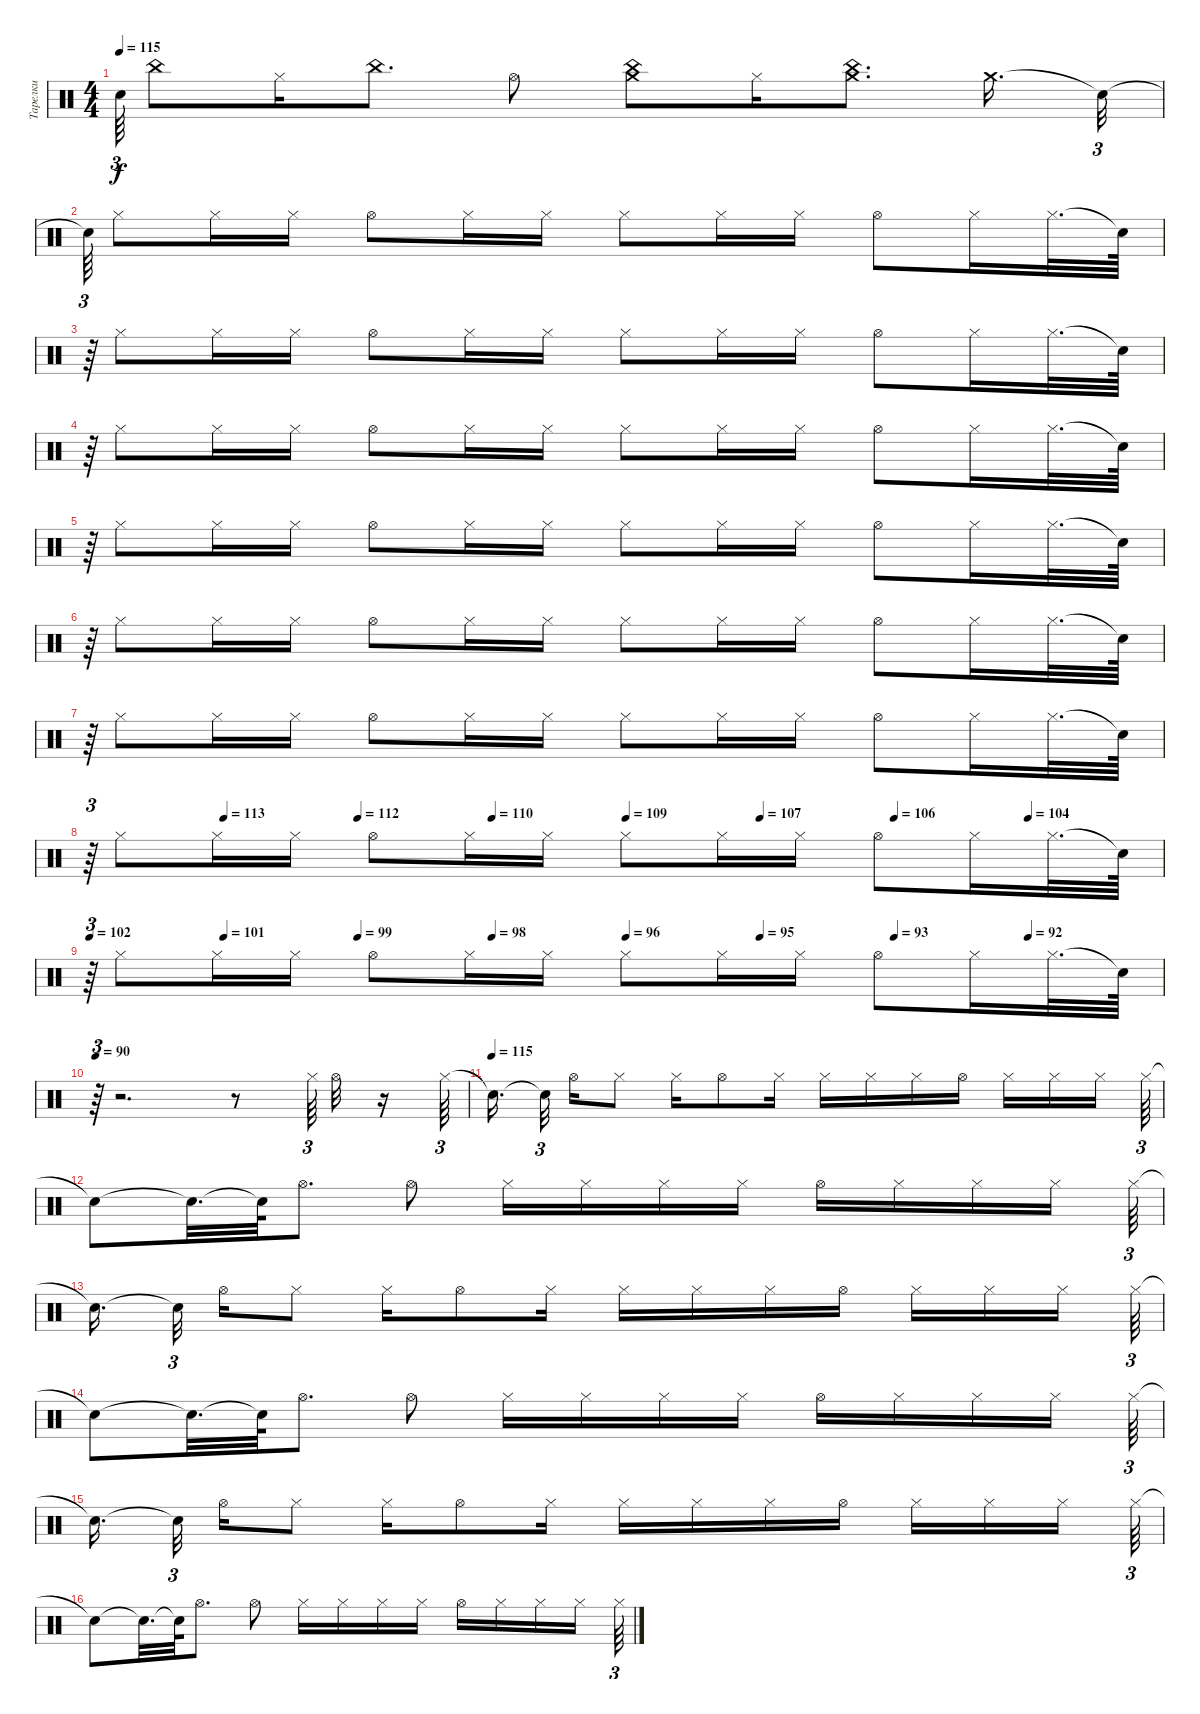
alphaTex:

\track ("Тарелки" "Тарелки") {instrument percussion}
\staff {score}
\articulation defaults
\ts (4 4)
\tempo 115
\clef neutral
\ks c "Snare (hit)"{t}.64{tu (3 2) dy f} "China (hit)".8 "Hi-Hat (closed)".16 "China (hit)".8{d} "Hi-Hat (open)".8
("China (hit)" "Crash medium (hit)").8 "Hi-Hat (closed)".16 ("China (hit)" "Crash medium (hit)").8{d} "Crash medium (hit)".16{d} "Snare (hit)"{t}.32{tu (3 2)} |
"Snare (hit)"{t}.64{tu (3 2)} "Hi-Hat (closed)".8 "Hi-Hat (closed)".16 "Hi-Hat (closed)".16 "Hi-Hat (open)".8 "Hi-Hat (closed)".16 "Hi-Hat (closed)".16 "Hi-Hat (closed)".8 "Hi-Hat (closed)".16 "Hi-Hat (closed)".16 "Hi-Hat (open)".8 "Hi-Hat (closed)".16 "Hi-Hat (closed)".32{d} "Snare (hit)"{t}.64 |
r.64{tu (3 2)} "Hi-Hat (closed)".8 "Hi-Hat (closed)".16 "Hi-Hat (closed)".16 "Hi-Hat (open)".8 "Hi-Hat (closed)".16 "Hi-Hat (closed)".16 "Hi-Hat (closed)".8 "Hi-Hat (closed)".16 "Hi-Hat (closed)".16 "Hi-Hat (open)".8 "Hi-Hat (closed)".16 "Hi-Hat (closed)".32{d} "Snare (hit)"{t}.64 |
r.64{tu (3 2)} "Hi-Hat (closed)".8 "Hi-Hat (closed)".16 "Hi-Hat (closed)".16 "Hi-Hat (open)".8 "Hi-Hat (closed)".16 "Hi-Hat (closed)".16 "Hi-Hat (closed)".8 "Hi-Hat (closed)".16 "Hi-Hat (closed)".16 "Hi-Hat (open)".8 "Hi-Hat (closed)".16 "Hi-Hat (closed)".32{d} "Snare (hit)"{t}.64 |
r.64{tu (3 2)} "Hi-Hat (closed)".8 "Hi-Hat (closed)".16 "Hi-Hat (closed)".16 "Hi-Hat (open)".8 "Hi-Hat (closed)".16 "Hi-Hat (closed)".16 "Hi-Hat (closed)".8 "Hi-Hat (closed)".16 "Hi-Hat (closed)".16 "Hi-Hat (open)".8 "Hi-Hat (closed)".16 "Hi-Hat (closed)".32{d} "Snare (hit)"{t}.64 |
r.64{tu (3 2)} "Hi-Hat (closed)".8 "Hi-Hat (closed)".16 "Hi-Hat (closed)".16 "Hi-Hat (open)".8 "Hi-Hat (closed)".16 "Hi-Hat (closed)".16 "Hi-Hat (closed)".8 "Hi-Hat (closed)".16 "Hi-Hat (closed)".16 "Hi-Hat (open)".8 "Hi-Hat (closed)".16 "Hi-Hat (closed)".32{d} "Snare (hit)"{t}.64 |
r.64{tu (3 2)} "Hi-Hat (closed)".8 "Hi-Hat (closed)".16 "Hi-Hat (closed)".16 "Hi-Hat (open)".8 "Hi-Hat (closed)".16 "Hi-Hat (closed)".16 "Hi-Hat (closed)".8 "Hi-Hat (closed)".16 "Hi-Hat (closed)".16 "Hi-Hat (open)".8 "Hi-Hat (closed)".16 "Hi-Hat (closed)".32{d} "Snare (hit)"{t}.64 |
\tempo (113 0.125)
\tempo (112 0.25)
\tempo (110 0.375)
\tempo (109 0.5)
\tempo (107 0.625)
\tempo (106 0.75)
\tempo (104 0.875)
r.64{tu (3 2)} "Hi-Hat (closed)".8 "Hi-Hat (closed)".16 "Hi-Hat (closed)".16 "Hi-Hat (open)".8 "Hi-Hat (closed)".16 "Hi-Hat (closed)".16 "Hi-Hat (closed)".8 "Hi-Hat (closed)".16 "Hi-Hat (closed)".16 "Hi-Hat (open)".8 "Hi-Hat (closed)".16 "Hi-Hat (closed)".32{d} "Snare (hit)"{t}.64 |
\tempo 102
\tempo (101 0.125)
\tempo (99 0.25)
\tempo (98 0.375)
\tempo (96 0.5)
\tempo (95 0.625)
\tempo (93 0.75)
\tempo (92 0.875)
r.64{tu (3 2)} "Hi-Hat (closed)".8 "Hi-Hat (closed)".16 "Hi-Hat (closed)".16 "Hi-Hat (open)".8 "Hi-Hat (closed)".16 "Hi-Hat (closed)".16 "Hi-Hat (closed)".8 "Hi-Hat (closed)".16 "Hi-Hat (closed)".16 "Hi-Hat (open)".8 "Hi-Hat (closed)".16 "Hi-Hat (closed)".32{d} "Snare (hit)"{t}.64 |
\tempo 90
r.64{tu (3 2)} r.2{d} r.8 "Hi-Hat (closed)".64{tu (3 2)} "Hi-Hat (open)".32 r.16 "Hi-Hat (closed)".64{tu (3 2)} |
\tempo (115)
"Snare (hit)"{t}.16{d beam splitsecondary} "Snare (hit)"{t}.32{tu (3 2) beam splitsecondary} "Hi-Hat (open)".16 "Hi-Hat (closed)".8 "Hi-Hat (closed)".16 "Hi-Hat (open)".8 "Hi-Hat (closed)".16 "Hi-Hat (closed)".16 "Hi-Hat (closed)".16 "Hi-Hat (closed)".16 "Hi-Hat (open)".16 "Hi-Hat (closed)".16 "Hi-Hat (closed)".16 "Hi-Hat (closed)".16{beam splitsecondary} "Hi-Hat (closed)".64{tu (3 2)} |
"Snare (hit)"{t}.8 "Snare (hit)"{t}.32{d} "Snare (hit)"{t}.64 "Hi-Hat (open)".8{d} "Hi-Hat (open)".8 "Hi-Hat (closed)".16 "Hi-Hat (closed)".16 "Hi-Hat (closed)".16 "Hi-Hat (closed)".16 "Hi-Hat (open)".16 "Hi-Hat (closed)".16 "Hi-Hat (closed)".16 "Hi-Hat (closed)".16 "Hi-Hat (closed)".64{tu (3 2)} |
"Snare (hit)"{t}.16{d beam splitsecondary} "Snare (hit)"{t}.32{tu (3 2) beam splitsecondary} "Hi-Hat (open)".16 "Hi-Hat (closed)".8 "Hi-Hat (closed)".16 "Hi-Hat (open)".8 "Hi-Hat (closed)".16 "Hi-Hat (closed)".16 "Hi-Hat (closed)".16 "Hi-Hat (closed)".16 "Hi-Hat (open)".16 "Hi-Hat (closed)".16 "Hi-Hat (closed)".16 "Hi-Hat (closed)".16{beam splitsecondary} "Hi-Hat (closed)".64{tu (3 2)} |
"Snare (hit)"{t}.8 "Snare (hit)"{t}.32{d} "Snare (hit)"{t}.64 "Hi-Hat (open)".8{d} "Hi-Hat (open)".8 "Hi-Hat (closed)".16 "Hi-Hat (closed)".16 "Hi-Hat (closed)".16 "Hi-Hat (closed)".16 "Hi-Hat (open)".16 "Hi-Hat (closed)".16 "Hi-Hat (closed)".16 "Hi-Hat (closed)".16 "Hi-Hat (closed)".64{tu (3 2)} |
"Snare (hit)"{t}.16{d beam splitsecondary} "Snare (hit)"{t}.32{tu (3 2) beam splitsecondary} "Hi-Hat (open)".16 "Hi-Hat (closed)".8 "Hi-Hat (closed)".16 "Hi-Hat (open)".8 "Hi-Hat (closed)".16 "Hi-Hat (closed)".16 "Hi-Hat (closed)".16 "Hi-Hat (closed)".16 "Hi-Hat (open)".16 "Hi-Hat (closed)".16 "Hi-Hat (closed)".16 "Hi-Hat (closed)".16{beam splitsecondary} "Hi-Hat (closed)".64{tu (3 2)} |
"Snare (hit)"{t}.8 "Snare (hit)"{t}.32{d} "Snare (hit)"{t}.64 "Hi-Hat (open)".8{d} "Hi-Hat (open)".8 "Hi-Hat (closed)".16 "Hi-Hat (closed)".16 "Hi-Hat (closed)".16 "Hi-Hat (closed)".16 "Hi-Hat (open)".16 "Hi-Hat (closed)".16 "Hi-Hat (closed)".16 "Hi-Hat (closed)".16 "Hi-Hat (closed)".64{tu (3 2)}
